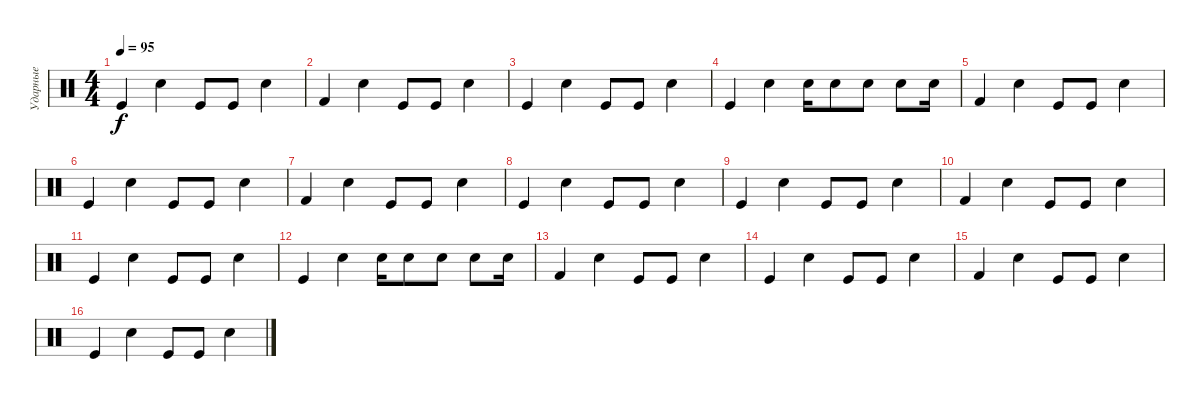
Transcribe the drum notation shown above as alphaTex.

\track ("Ударные" "Ударные") {instrument percussion}
\staff {score}
\articulation defaults
\ts (4 4)
\tempo 95
\clef neutral
\ks c "Kick (hit)".4{dy f} "Electric Snare (hit)".4 "Kick (hit)".8 "Kick (hit)".8 "Electric Snare (hit)".4
|
"Kick (hit) 2".4 "Electric Snare (hit)".4 "Kick (hit)".8 "Kick (hit)".8 "Electric Snare (hit)".4 |
"Kick (hit)".4 "Electric Snare (hit)".4 "Kick (hit)".8 "Kick (hit)".8 "Electric Snare (hit)".4 |
"Kick (hit)".4 "Electric Snare (hit)".4 "Electric Snare (hit)".16 "Electric Snare (hit)".8 "Snare (hit) 2".8 "Snare (hit) 2".8 "Electric Snare (hit)".16 |
"Kick (hit) 2".4 "Electric Snare (hit)".4 "Kick (hit)".8 "Kick (hit)".8 "Electric Snare (hit)".4 |
"Kick (hit)".4 "Electric Snare (hit)".4 "Kick (hit)".8 "Kick (hit)".8 "Electric Snare (hit)".4 |
"Kick (hit) 2".4 "Electric Snare (hit)".4 "Kick (hit)".8 "Kick (hit)".8 "Electric Snare (hit)".4 |
"Kick (hit)".4 "Electric Snare (hit)".4 "Kick (hit)".8 "Kick (hit)".8 "Electric Snare (hit)".4 |
"Kick (hit)".4 "Electric Snare (hit)".4 "Kick (hit)".8 "Kick (hit)".8 "Electric Snare (hit)".4 |
"Kick (hit) 2".4 "Electric Snare (hit)".4 "Kick (hit)".8 "Kick (hit)".8 "Electric Snare (hit)".4 |
"Kick (hit)".4 "Electric Snare (hit)".4 "Kick (hit)".8 "Kick (hit)".8 "Electric Snare (hit)".4 |
"Kick (hit)".4 "Electric Snare (hit)".4 "Electric Snare (hit)".16 "Electric Snare (hit)".8 "Snare (hit) 2".8 "Snare (hit) 2".8 "Electric Snare (hit)".16 |
"Kick (hit) 2".4 "Electric Snare (hit)".4 "Kick (hit)".8 "Kick (hit)".8 "Electric Snare (hit)".4 |
"Kick (hit)".4 "Electric Snare (hit)".4 "Kick (hit)".8 "Kick (hit)".8 "Electric Snare (hit)".4 |
"Kick (hit) 2".4 "Electric Snare (hit)".4 "Kick (hit)".8 "Kick (hit)".8 "Electric Snare (hit)".4 |
"Kick (hit)".4 "Electric Snare (hit)".4 "Kick (hit)".8 "Kick (hit)".8 "Electric Snare (hit)".4
